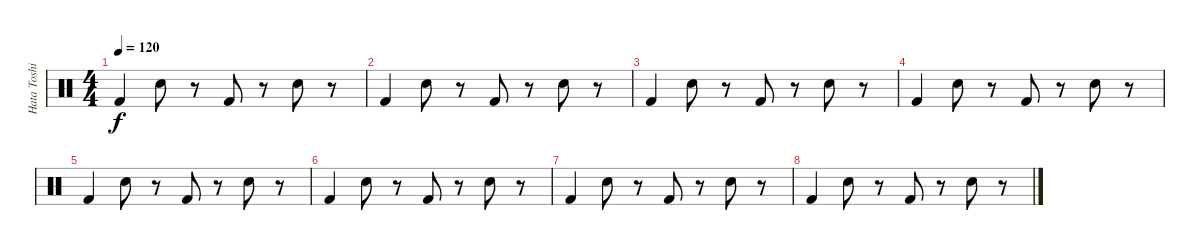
\track ("Hata Toshiki" "Hata Toshi") {instrument percussion}
\staff {score}
\articulation defaults
\ts (4 4)
\tempo 120
\clef neutral
\ks c "Kick (hit) 2".4{dy f} "Electric Snare (hit)".8
r.8 "Kick (hit) 2".8 r.8 "Electric Snare (hit)".8 r.8 |
"Kick (hit) 2".4 "Electric Snare (hit)".8 r.8 "Kick (hit) 2".8 r.8 "Electric Snare (hit)".8 r.8 |
"Kick (hit) 2".4 "Electric Snare (hit)".8 r.8 "Kick (hit) 2".8 r.8 "Electric Snare (hit)".8 r.8 |
"Kick (hit) 2".4 "Electric Snare (hit)".8 r.8 "Kick (hit) 2".8 r.8 "Electric Snare (hit)".8 r.8 |
"Kick (hit) 2".4 "Electric Snare (hit)".8 r.8 "Kick (hit) 2".8 r.8 "Electric Snare (hit)".8 r.8 |
"Kick (hit) 2".4 "Electric Snare (hit)".8 r.8 "Kick (hit) 2".8 r.8 "Electric Snare (hit)".8 r.8 |
"Kick (hit) 2".4 "Electric Snare (hit)".8 r.8 "Kick (hit) 2".8 r.8 "Electric Snare (hit)".8 r.8 |
"Kick (hit) 2".4 "Electric Snare (hit)".8 r.8 "Kick (hit) 2".8 r.8 "Electric Snare (hit)".8 r.8
